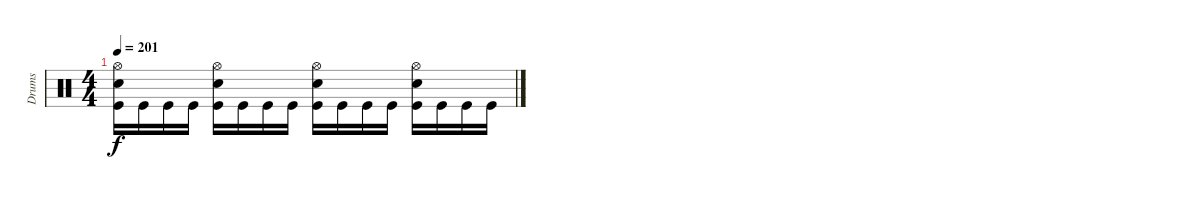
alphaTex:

\track ("Drums" "Drums") {instrument percussion}
\staff
\articulation defaults
\ts (4 4)
\tempo 201
\clef neutral
\ks c
("Hi-Hat (open)" "Electric Snare (hit)" "Kick (hit)").16{dy f} "Kick (hit)".16 "Kick (hit)".16 "Kick (hit)".16 ("Hi-Hat (open)" "Electric Snare (hit)" "Kick (hit)").16 "Kick (hit)".16 "Kick (hit)".16 "Kick (hit)".16 ("Hi-Hat (open)" "Electric Snare (hit)" "Kick (hit)").16 "Kick (hit)".16 "Kick (hit)".16 "Kick (hit)".16 ("Hi-Hat (open)" "Electric Snare (hit)" "Kick (hit)").16 "Kick (hit)".16 "Kick (hit)".16 "Kick (hit)".16
